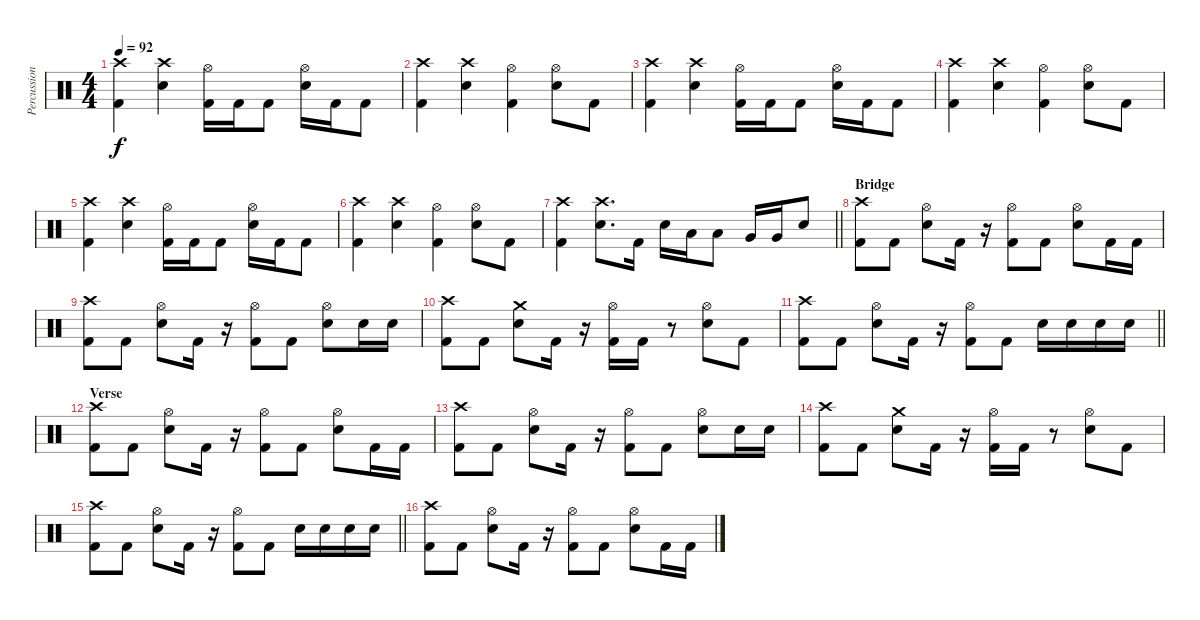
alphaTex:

\track ("Percussion" "Percussion") {instrument percussion}
\staff {score}
\articulation defaults
\ts (4 4)
\tempo 92
\clef neutral
\ks c
("Crash high (hit)" "Kick (hit) 2").4{dy f} ("Crash high (hit)" "Snare (hit) 2").4 ("Hi-Hat (open)" "Kick (hit) 2").16 "Kick (hit) 2".16 "Kick (hit) 2".8 ("Hi-Hat (open)" "Snare (hit) 2").16 "Kick (hit) 2".16 "Kick (hit) 2".8 |
("Crash high (hit)" "Kick (hit) 2").4 ("Crash high (hit)" "Snare (hit) 2").4 ("Hi-Hat (open)" "Kick (hit) 2").4 ("Hi-Hat (open)" "Snare (hit) 2").8 "Kick (hit) 2".8 |
("Crash high (hit)" "Kick (hit) 2").4 ("Crash high (hit)" "Snare (hit) 2").4 ("Hi-Hat (open)" "Kick (hit) 2").16 "Kick (hit) 2".16 "Kick (hit) 2".8 ("Hi-Hat (open)" "Snare (hit) 2").16 "Kick (hit) 2".16 "Kick (hit) 2".8 |
("Crash high (hit)" "Kick (hit) 2").4 ("Crash high (hit)" "Snare (hit) 2").4 ("Hi-Hat (open)" "Kick (hit) 2").4 ("Hi-Hat (open)" "Snare (hit) 2").8 "Kick (hit) 2".8 |
("Crash high (hit)" "Kick (hit) 2").4 ("Crash high (hit)" "Snare (hit) 2").4 ("Hi-Hat (open)" "Kick (hit) 2").16 "Kick (hit) 2".16 "Kick (hit) 2".8 ("Hi-Hat (open)" "Snare (hit) 2").16 "Kick (hit) 2".16 "Kick (hit) 2".8 |
("Crash high (hit)" "Kick (hit) 2").4 ("Crash high (hit)" "Snare (hit) 2").4 ("Hi-Hat (open)" "Kick (hit) 2").4 ("Hi-Hat (open)" "Snare (hit) 2").8 "Kick (hit) 2".8 |
\barLineRight lightlight
("Crash high (hit)" "Kick (hit) 2").4 ("Crash high (hit)" "Snare (hit) 2").8{d} "Kick (hit) 2".16 "Snare (hit) 2".16 "Low Tom (hit)".16 "Low Tom (hit)".8 "Very Low Tom (hit)".16 "Very Low Tom (hit)".16 "Snare (hit) 2".8 |
\section ("" "Bridge")
("Crash high (hit)" "Kick (hit) 2").8 "Kick (hit) 2".8 ("Hi-Hat (open)" "Snare (hit) 2").8 "Kick (hit) 2".16 r.16 ("Hi-Hat (open)" "Kick (hit) 2").8 "Kick (hit) 2".8 ("Hi-Hat (open)" "Snare (hit) 2").8 "Kick (hit) 2".16 "Kick (hit) 2".16 |
("Crash high (hit)" "Kick (hit) 2").8 "Kick (hit) 2".8 ("Hi-Hat (open)" "Snare (hit) 2").8 "Kick (hit) 2".16 r.16 ("Hi-Hat (open)" "Kick (hit) 2").8 "Kick (hit) 2".8 ("Hi-Hat (open)" "Snare (hit) 2").8 "Snare (hit) 2".16 "Snare (hit) 2".16 |
("Crash high (hit)" "Kick (hit) 2").8 "Kick (hit) 2".8 ("Crash medium (hit)" "Snare (hit) 2").8 "Kick (hit) 2".16 r.16 ("Hi-Hat (open)" "Kick (hit) 2").16 "Kick (hit) 2".16 r.8 ("Hi-Hat (open)" "Snare (hit) 2").8 "Kick (hit) 2".8 |
\barLineRight lightlight
("Crash high (hit)" "Kick (hit) 2").8 "Kick (hit) 2".8 ("Hi-Hat (open)" "Snare (hit) 2").8 "Kick (hit) 2".16 r.16 ("Hi-Hat (open)" "Kick (hit) 2").8 "Kick (hit) 2".8 "Snare (hit) 2".16 "Snare (hit) 2".16 "Snare (hit) 2".16 "Snare (hit) 2".16 |
\section ("" "Verse")
("Crash high (hit)" "Kick (hit) 2").8 "Kick (hit) 2".8 ("Hi-Hat (open)" "Snare (hit) 2").8 "Kick (hit) 2".16 r.16 ("Hi-Hat (open)" "Kick (hit) 2").8 "Kick (hit) 2".8 ("Hi-Hat (open)" "Snare (hit) 2").8 "Kick (hit) 2".16 "Kick (hit) 2".16 |
("Crash high (hit)" "Kick (hit) 2").8 "Kick (hit) 2".8 ("Hi-Hat (open)" "Snare (hit) 2").8 "Kick (hit) 2".16 r.16 ("Hi-Hat (open)" "Kick (hit) 2").8 "Kick (hit) 2".8 ("Hi-Hat (open)" "Snare (hit) 2").8 "Snare (hit) 2".16 "Snare (hit) 2".16 |
("Crash high (hit)" "Kick (hit) 2").8 "Kick (hit) 2".8 ("Crash medium (hit)" "Snare (hit) 2").8 "Kick (hit) 2".16 r.16 ("Hi-Hat (open)" "Kick (hit) 2").16 "Kick (hit) 2".16 r.8 ("Hi-Hat (open)" "Snare (hit) 2").8 "Kick (hit) 2".8 |
\barLineRight lightlight
("Crash high (hit)" "Kick (hit) 2").8 "Kick (hit) 2".8 ("Hi-Hat (open)" "Snare (hit) 2").8 "Kick (hit) 2".16 r.16 ("Hi-Hat (open)" "Kick (hit) 2").8 "Kick (hit) 2".8 "Snare (hit) 2".16 "Snare (hit) 2".16 "Snare (hit) 2".16 "Snare (hit) 2".16 |
("Crash high (hit)" "Kick (hit) 2").8 "Kick (hit) 2".8 ("Hi-Hat (open)" "Snare (hit) 2").8 "Kick (hit) 2".16 r.16 ("Hi-Hat (open)" "Kick (hit) 2").8 "Kick (hit) 2".8 ("Hi-Hat (open)" "Snare (hit) 2").8 "Kick (hit) 2".16 "Kick (hit) 2".16
